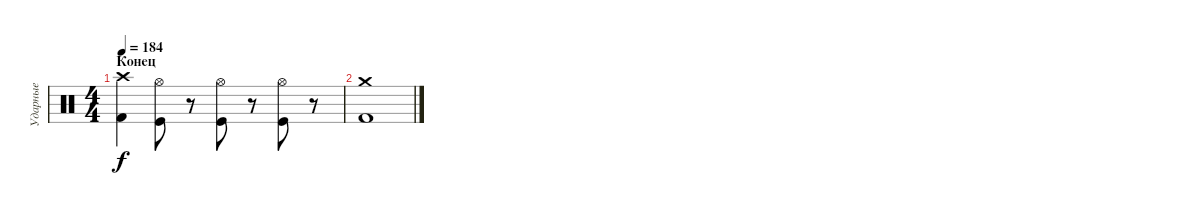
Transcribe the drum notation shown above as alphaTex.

\track ("Ударные" "Ударные") {instrument percussion}
\staff {score}
\articulation defaults
\ts (4 4)
\section ("" "Конец")
\tempo 184
\clef neutral
\ks c
("Crash high (hit)" "Kick (hit) 2").4{dy f} ("Hi-Hat (open)" "Kick (hit)").8 r.8 ("Hi-Hat (open)" "Kick (hit)").8 r.8 ("Hi-Hat (open)" "Kick (hit)").8 r.8 |
("Crash medium (hit)" "Kick (hit) 2").1
